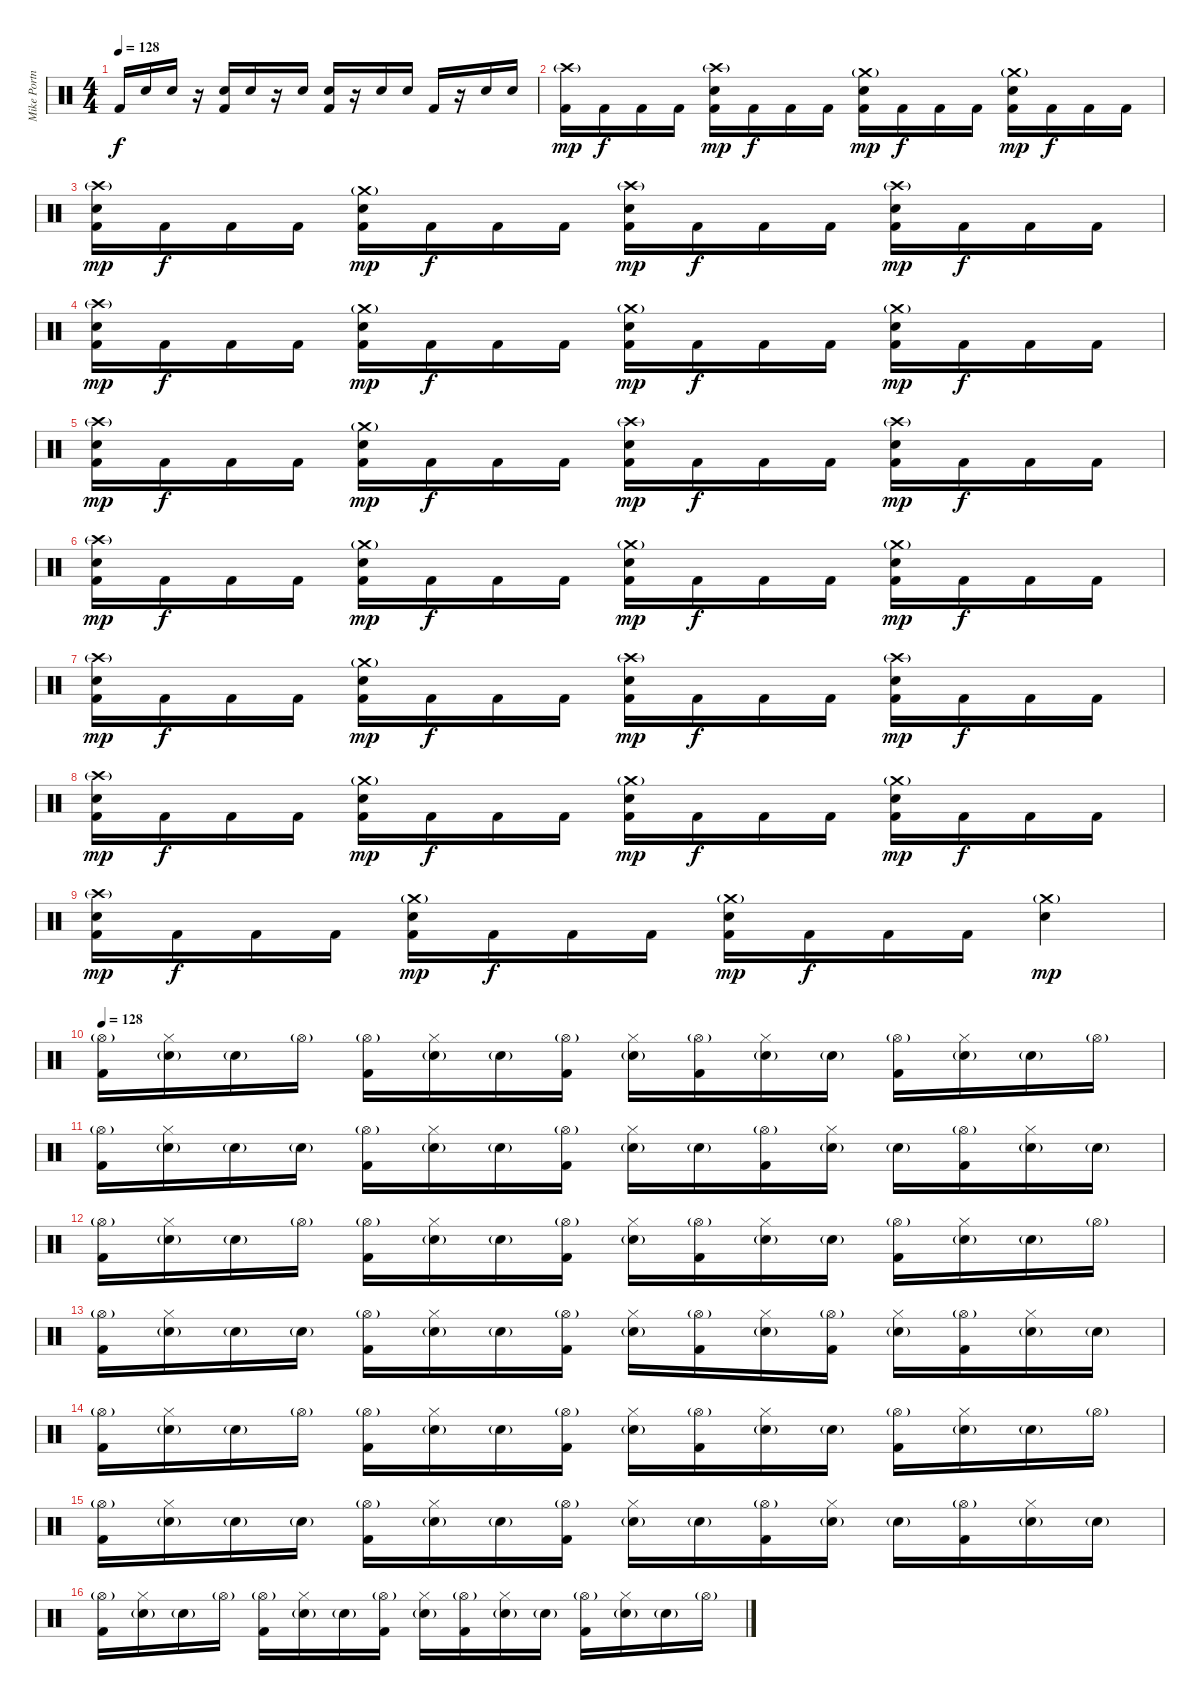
\track ("Mike Portnoy" "Mike Portn") {instrument percussion}
\staff {score}
\articulation defaults
\ts (4 4)
\tempo 128
\clef neutral
\ks c "Kick (hit) 2".16{dy f} "Snare (hit) 2".16 "Snare (hit) 2".16
r.16 ("Snare (hit) 2" "Kick (hit) 2").16 "Snare (hit) 2".16 r.16 "Snare (hit) 2".16 ("Snare (hit) 2" "Kick (hit) 2").16 r.16 "Snare (hit) 2".16 "Snare (hit) 2".16 "Kick (hit) 2".16 r.16 "Snare (hit) 2".16 "Snare (hit) 2".16 |
("Crash high (hit)"{g} "Kick (hit) 2").16{dy mp} "Kick (hit) 2".16{dy f} "Kick (hit) 2".16 "Kick (hit) 2".16 ("Crash high (hit)"{g} "Snare (hit) 2" "Kick (hit) 2").16{dy mp} "Kick (hit) 2".16{dy f} "Kick (hit) 2".16 "Kick (hit) 2".16 ("Crash medium (hit)"{g} "Snare (hit) 2" "Kick (hit) 2").16{dy mp} "Kick (hit) 2".16{dy f} "Kick (hit) 2".16 "Kick (hit) 2".16 ("Crash medium (hit)"{g} "Snare (hit) 2" "Kick (hit) 2").16{dy mp} "Kick (hit) 2".16{dy f} "Kick (hit) 2".16 "Kick (hit) 2".16 |
("Crash high (hit)"{g} "Snare (hit) 2" "Kick (hit) 2").16{dy mp} "Kick (hit) 2".16{dy f} "Kick (hit) 2".16 "Kick (hit) 2".16 ("Crash medium (hit)"{g} "Snare (hit) 2" "Kick (hit) 2").16{dy mp} "Kick (hit) 2".16{dy f} "Kick (hit) 2".16 "Kick (hit) 2".16 ("Crash high (hit)"{g} "Snare (hit) 2" "Kick (hit) 2").16{dy mp} "Kick (hit) 2".16{dy f} "Kick (hit) 2".16 "Kick (hit) 2".16 ("Crash high (hit)"{g} "Snare (hit) 2" "Kick (hit) 2").16{dy mp} "Kick (hit) 2".16{dy f} "Kick (hit) 2".16 "Kick (hit) 2".16 |
("Crash high (hit)"{g} "Snare (hit) 2" "Kick (hit) 2").16{dy mp} "Kick (hit) 2".16{dy f} "Kick (hit) 2".16 "Kick (hit) 2".16 ("Crash medium (hit)"{g} "Snare (hit) 2" "Kick (hit) 2").16{dy mp} "Kick (hit) 2".16{dy f} "Kick (hit) 2".16 "Kick (hit) 2".16 ("Crash medium (hit)"{g} "Snare (hit) 2" "Kick (hit) 2").16{dy mp} "Kick (hit) 2".16{dy f} "Kick (hit) 2".16 "Kick (hit) 2".16 ("Crash medium (hit)"{g} "Snare (hit) 2" "Kick (hit) 2").16{dy mp} "Kick (hit) 2".16{dy f} "Kick (hit) 2".16 "Kick (hit) 2".16 |
("Crash high (hit)"{g} "Snare (hit) 2" "Kick (hit) 2").16{dy mp} "Kick (hit) 2".16{dy f} "Kick (hit) 2".16 "Kick (hit) 2".16 ("Crash medium (hit)"{g} "Snare (hit) 2" "Kick (hit) 2").16{dy mp} "Kick (hit) 2".16{dy f} "Kick (hit) 2".16 "Kick (hit) 2".16 ("Crash high (hit)"{g} "Snare (hit) 2" "Kick (hit) 2").16{dy mp} "Kick (hit) 2".16{dy f} "Kick (hit) 2".16 "Kick (hit) 2".16 ("Crash high (hit)"{g} "Snare (hit) 2" "Kick (hit) 2").16{dy mp} "Kick (hit) 2".16{dy f} "Kick (hit) 2".16 "Kick (hit) 2".16 |
("Crash high (hit)"{g} "Snare (hit) 2" "Kick (hit) 2").16{dy mp} "Kick (hit) 2".16{dy f} "Kick (hit) 2".16 "Kick (hit) 2".16 ("Crash medium (hit)"{g} "Snare (hit) 2" "Kick (hit) 2").16{dy mp} "Kick (hit) 2".16{dy f} "Kick (hit) 2".16 "Kick (hit) 2".16 ("Crash medium (hit)"{g} "Snare (hit) 2" "Kick (hit) 2").16{dy mp} "Kick (hit) 2".16{dy f} "Kick (hit) 2".16 "Kick (hit) 2".16 ("Crash medium (hit)"{g} "Snare (hit) 2" "Kick (hit) 2").16{dy mp} "Kick (hit) 2".16{dy f} "Kick (hit) 2".16 "Kick (hit) 2".16 |
("Crash high (hit)"{g} "Snare (hit) 2" "Kick (hit) 2").16{dy mp} "Kick (hit) 2".16{dy f} "Kick (hit) 2".16 "Kick (hit) 2".16 ("Crash medium (hit)"{g} "Snare (hit) 2" "Kick (hit) 2").16{dy mp} "Kick (hit) 2".16{dy f} "Kick (hit) 2".16 "Kick (hit) 2".16 ("Crash high (hit)"{g} "Snare (hit) 2" "Kick (hit) 2").16{dy mp} "Kick (hit) 2".16{dy f} "Kick (hit) 2".16 "Kick (hit) 2".16 ("Crash high (hit)"{g} "Snare (hit) 2" "Kick (hit) 2").16{dy mp} "Kick (hit) 2".16{dy f} "Kick (hit) 2".16 "Kick (hit) 2".16 |
("Crash high (hit)"{g} "Snare (hit) 2" "Kick (hit) 2").16{dy mp} "Kick (hit) 2".16{dy f} "Kick (hit) 2".16 "Kick (hit) 2".16 ("Crash medium (hit)"{g} "Snare (hit) 2" "Kick (hit) 2").16{dy mp} "Kick (hit) 2".16{dy f} "Kick (hit) 2".16 "Kick (hit) 2".16 ("Crash medium (hit)"{g} "Snare (hit) 2" "Kick (hit) 2").16{dy mp} "Kick (hit) 2".16{dy f} "Kick (hit) 2".16 "Kick (hit) 2".16 ("Crash medium (hit)"{g} "Snare (hit) 2" "Kick (hit) 2").16{dy mp} "Kick (hit) 2".16{dy f} "Kick (hit) 2".16 "Kick (hit) 2".16 |
("Crash high (hit)"{g} "Snare (hit) 2" "Kick (hit) 2").16{dy mp} "Kick (hit) 2".16{dy f} "Kick (hit) 2".16 "Kick (hit) 2".16 ("Crash medium (hit)"{g} "Snare (hit) 2" "Kick (hit) 2").16{dy mp} "Kick (hit) 2".16{dy f} "Kick (hit) 2".16 "Kick (hit) 2".16 ("Crash medium (hit)"{g} "Snare (hit) 2" "Kick (hit) 2").16{dy mp} "Kick (hit) 2".16{dy f} "Kick (hit) 2".16 "Kick (hit) 2".16 ("Crash medium (hit)"{g} "Snare (hit) 2").4{dy mp} |
\tempo 128
("Hi-Hat (open)"{g} "Kick (hit) 2").16 ("Hi-Hat (closed)" "Snare (hit) 2"{g}).16 "Snare (hit) 2"{g}.16 "Hi-Hat (open)"{g}.16 ("Hi-Hat (open)"{g} "Kick (hit) 2").16 ("Hi-Hat (closed)" "Snare (hit) 2"{g}).16 "Snare (hit) 2"{g}.16 ("Hi-Hat (open)"{g} "Kick (hit) 2").16 ("Hi-Hat (closed)" "Snare (hit) 2"{g}).16 ("Hi-Hat (open)"{g} "Kick (hit) 2").16 ("Hi-Hat (closed)" "Snare (hit) 2"{g}).16 "Snare (hit) 2"{g}.16 ("Hi-Hat (open)"{g} "Kick (hit) 2").16 ("Hi-Hat (closed)" "Snare (hit) 2"{g}).16 "Snare (hit) 2"{g}.16 "Hi-Hat (open)"{g}.16 |
("Hi-Hat (open)"{g} "Kick (hit) 2").16 ("Hi-Hat (closed)" "Snare (hit) 2"{g}).16 "Snare (hit) 2"{g}.16 "Snare (hit) 2"{g}.16 ("Hi-Hat (open)"{g} "Kick (hit) 2").16 ("Hi-Hat (closed)" "Snare (hit) 2"{g}).16 "Snare (hit) 2"{g}.16 ("Hi-Hat (open)"{g} "Kick (hit) 2").16 ("Hi-Hat (closed)" "Snare (hit) 2"{g}).16 "Snare (hit) 2"{g}.16 ("Hi-Hat (open)"{g} "Kick (hit) 2").16 ("Hi-Hat (closed)" "Snare (hit) 2"{g}).16 "Snare (hit) 2"{g}.16 ("Hi-Hat (open)"{g} "Kick (hit) 2").16 ("Hi-Hat (closed)" "Snare (hit) 2"{g}).16 "Snare (hit) 2"{g}.16 |
("Hi-Hat (open)"{g} "Kick (hit) 2").16 ("Hi-Hat (closed)" "Snare (hit) 2"{g}).16 "Snare (hit) 2"{g}.16 "Hi-Hat (open)"{g}.16 ("Hi-Hat (open)"{g} "Kick (hit) 2").16 ("Hi-Hat (closed)" "Snare (hit) 2"{g}).16 "Snare (hit) 2"{g}.16 ("Hi-Hat (open)"{g} "Kick (hit) 2").16 ("Hi-Hat (closed)" "Snare (hit) 2"{g}).16 ("Hi-Hat (open)"{g} "Kick (hit) 2").16 ("Hi-Hat (closed)" "Snare (hit) 2"{g}).16 "Snare (hit) 2"{g}.16 ("Hi-Hat (open)"{g} "Kick (hit) 2").16 ("Hi-Hat (closed)" "Snare (hit) 2"{g}).16 "Snare (hit) 2"{g}.16 "Hi-Hat (open)"{g}.16 |
("Hi-Hat (open)"{g} "Kick (hit) 2").16 ("Hi-Hat (closed)" "Snare (hit) 2"{g}).16 "Snare (hit) 2"{g}.16 "Snare (hit) 2"{g}.16 ("Hi-Hat (open)"{g} "Kick (hit) 2").16 ("Hi-Hat (closed)" "Snare (hit) 2"{g}).16 "Snare (hit) 2"{g}.16 ("Hi-Hat (open)"{g} "Kick (hit) 2").16 ("Hi-Hat (closed)" "Snare (hit) 2"{g}).16 ("Hi-Hat (open)"{g} "Kick (hit) 2").16 ("Hi-Hat (closed)" "Snare (hit) 2"{g}).16 ("Hi-Hat (open)"{g} "Kick (hit) 2").16 ("Hi-Hat (closed)" "Snare (hit) 2"{g}).16 ("Hi-Hat (open)"{g} "Kick (hit) 2").16 ("Hi-Hat (closed)" "Snare (hit) 2"{g}).16 "Snare (hit) 2"{g}.16 |
("Hi-Hat (open)"{g} "Kick (hit) 2").16 ("Hi-Hat (closed)" "Snare (hit) 2"{g}).16 "Snare (hit) 2"{g}.16 "Hi-Hat (open)"{g}.16 ("Hi-Hat (open)"{g} "Kick (hit) 2").16 ("Hi-Hat (closed)" "Snare (hit) 2"{g}).16 "Snare (hit) 2"{g}.16 ("Hi-Hat (open)"{g} "Kick (hit) 2").16 ("Hi-Hat (closed)" "Snare (hit) 2"{g}).16 ("Hi-Hat (open)"{g} "Kick (hit) 2").16 ("Hi-Hat (closed)" "Snare (hit) 2"{g}).16 "Snare (hit) 2"{g}.16 ("Hi-Hat (open)"{g} "Kick (hit) 2").16 ("Hi-Hat (closed)" "Snare (hit) 2"{g}).16 "Snare (hit) 2"{g}.16 "Hi-Hat (open)"{g}.16 |
("Hi-Hat (open)"{g} "Kick (hit) 2").16 ("Hi-Hat (closed)" "Snare (hit) 2"{g}).16 "Snare (hit) 2"{g}.16 "Snare (hit) 2"{g}.16 ("Hi-Hat (open)"{g} "Kick (hit) 2").16 ("Hi-Hat (closed)" "Snare (hit) 2"{g}).16 "Snare (hit) 2"{g}.16 ("Hi-Hat (open)"{g} "Kick (hit) 2").16 ("Hi-Hat (closed)" "Snare (hit) 2"{g}).16 "Snare (hit) 2"{g}.16 ("Hi-Hat (open)"{g} "Kick (hit) 2").16 ("Hi-Hat (closed)" "Snare (hit) 2"{g}).16 "Snare (hit) 2"{g}.16 ("Hi-Hat (open)"{g} "Kick (hit) 2").16 ("Hi-Hat (closed)" "Snare (hit) 2"{g}).16 "Snare (hit) 2"{g}.16 |
("Hi-Hat (open)"{g} "Kick (hit) 2").16 ("Hi-Hat (closed)" "Snare (hit) 2"{g}).16 "Snare (hit) 2"{g}.16 "Hi-Hat (open)"{g}.16 ("Hi-Hat (open)"{g} "Kick (hit) 2").16 ("Hi-Hat (closed)" "Snare (hit) 2"{g}).16 "Snare (hit) 2"{g}.16 ("Hi-Hat (open)"{g} "Kick (hit) 2").16 ("Hi-Hat (closed)" "Snare (hit) 2"{g}).16 ("Hi-Hat (open)"{g} "Kick (hit) 2").16 ("Hi-Hat (closed)" "Snare (hit) 2"{g}).16 "Snare (hit) 2"{g}.16 ("Hi-Hat (open)"{g} "Kick (hit) 2").16 ("Hi-Hat (closed)" "Snare (hit) 2"{g}).16 "Snare (hit) 2"{g}.16 "Hi-Hat (open)"{g}.16
